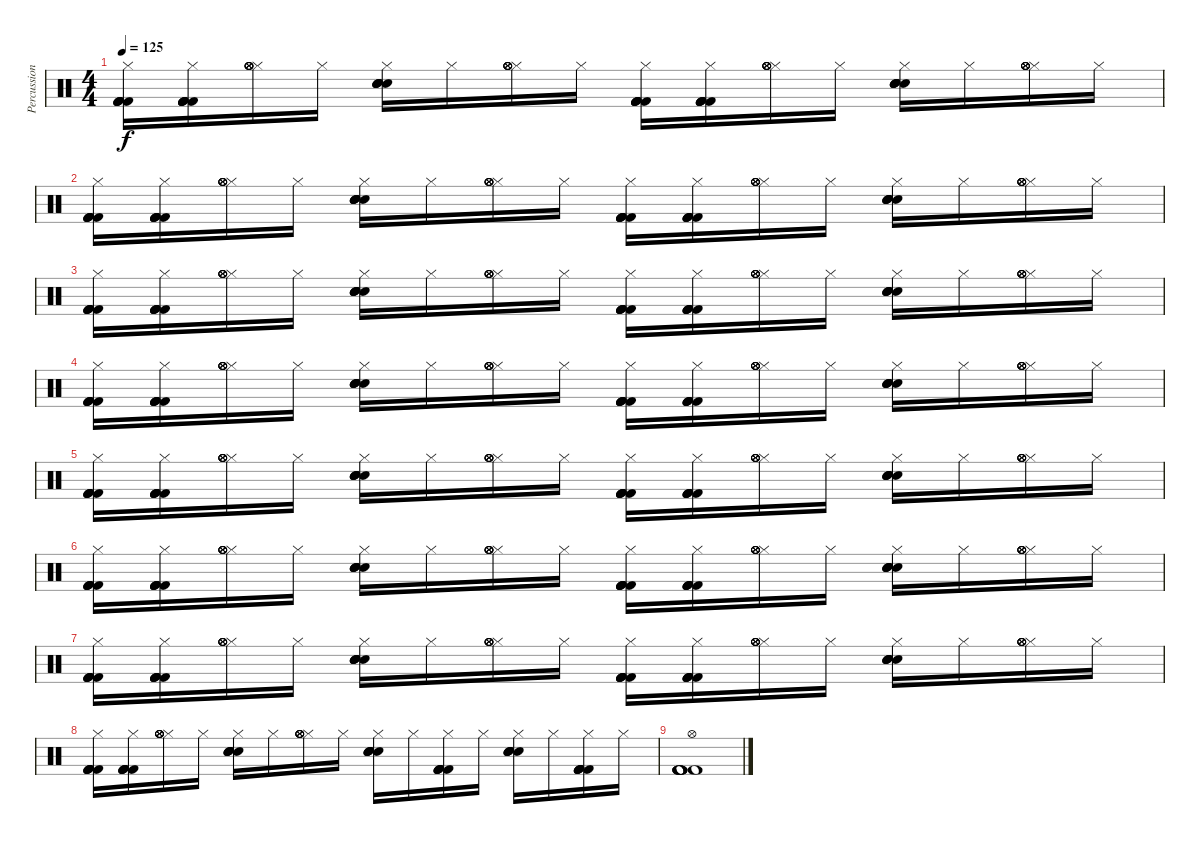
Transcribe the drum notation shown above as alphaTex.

\track ("Percussion" "Percussion") {instrument percussion}
\staff {score}
\articulation defaults
\ts (4 4)
\tempo 125
\clef neutral
\ks c
("Hi-Hat (closed)" "Kick (hit) 2" "Kick (hit) 2" "Kick (hit) 2" "Kick (hit) 2" "Kick (hit) 2").16{dy f} ("Hi-Hat (closed)" "Kick (hit) 2" "Kick (hit) 2" "Kick (hit) 2" "Kick (hit) 2" "Kick (hit) 2").16 ("Hi-Hat (closed)" "Hi-Hat (open)" "Hi-Hat (open)" "Hi-Hat (open)" "Hi-Hat (open)" "Hi-Hat (open)").16 "Hi-Hat (closed)".16 ("Hi-Hat (closed)" "Electric Snare (hit)" "Electric Snare (hit)" "Electric Snare (hit)" "Electric Snare (hit)" "Electric Snare (hit)").16 "Hi-Hat (closed)".16 ("Hi-Hat (closed)" "Hi-Hat (open)" "Hi-Hat (open)" "Hi-Hat (open)" "Hi-Hat (open)" "Hi-Hat (open)").16 "Hi-Hat (closed)".16 ("Hi-Hat (closed)" "Kick (hit) 2" "Kick (hit) 2" "Kick (hit) 2" "Kick (hit) 2" "Kick (hit) 2").16 ("Hi-Hat (closed)" "Kick (hit) 2" "Kick (hit) 2" "Kick (hit) 2" "Kick (hit) 2" "Kick (hit) 2").16 ("Hi-Hat (closed)" "Hi-Hat (open)" "Hi-Hat (open)" "Hi-Hat (open)" "Hi-Hat (open)" "Hi-Hat (open)").16 "Hi-Hat (closed)".16 ("Hi-Hat (closed)" "Electric Snare (hit)" "Electric Snare (hit)" "Electric Snare (hit)" "Electric Snare (hit)" "Electric Snare (hit)").16 "Hi-Hat (closed)".16 ("Hi-Hat (closed)" "Hi-Hat (open)" "Hi-Hat (open)" "Hi-Hat (open)" "Hi-Hat (open)" "Hi-Hat (open)").16 "Hi-Hat (closed)".16 |
("Hi-Hat (closed)" "Kick (hit) 2" "Kick (hit) 2" "Kick (hit) 2" "Kick (hit) 2" "Kick (hit) 2").16 ("Hi-Hat (closed)" "Kick (hit) 2" "Kick (hit) 2" "Kick (hit) 2" "Kick (hit) 2" "Kick (hit) 2").16 ("Hi-Hat (closed)" "Hi-Hat (open)" "Hi-Hat (open)" "Hi-Hat (open)" "Hi-Hat (open)" "Hi-Hat (open)").16 "Hi-Hat (closed)".16 ("Hi-Hat (closed)" "Electric Snare (hit)" "Electric Snare (hit)" "Electric Snare (hit)" "Electric Snare (hit)" "Electric Snare (hit)").16 "Hi-Hat (closed)".16 ("Hi-Hat (closed)" "Hi-Hat (open)" "Hi-Hat (open)" "Hi-Hat (open)" "Hi-Hat (open)" "Hi-Hat (open)").16 "Hi-Hat (closed)".16 ("Hi-Hat (closed)" "Kick (hit) 2" "Kick (hit) 2" "Kick (hit) 2" "Kick (hit) 2" "Kick (hit) 2").16 ("Hi-Hat (closed)" "Kick (hit) 2" "Kick (hit) 2" "Kick (hit) 2" "Kick (hit) 2" "Kick (hit) 2").16 ("Hi-Hat (closed)" "Hi-Hat (open)" "Hi-Hat (open)" "Hi-Hat (open)" "Hi-Hat (open)" "Hi-Hat (open)").16 "Hi-Hat (closed)".16 ("Hi-Hat (closed)" "Electric Snare (hit)" "Electric Snare (hit)" "Electric Snare (hit)" "Electric Snare (hit)" "Electric Snare (hit)").16 "Hi-Hat (closed)".16 ("Hi-Hat (closed)" "Hi-Hat (open)" "Hi-Hat (open)" "Hi-Hat (open)" "Hi-Hat (open)" "Hi-Hat (open)").16 "Hi-Hat (closed)".16 |
("Hi-Hat (closed)" "Kick (hit) 2" "Kick (hit) 2" "Kick (hit) 2" "Kick (hit) 2" "Kick (hit) 2").16 ("Hi-Hat (closed)" "Kick (hit) 2" "Kick (hit) 2" "Kick (hit) 2" "Kick (hit) 2" "Kick (hit) 2").16 ("Hi-Hat (closed)" "Hi-Hat (open)" "Hi-Hat (open)" "Hi-Hat (open)" "Hi-Hat (open)" "Hi-Hat (open)").16 "Hi-Hat (closed)".16 ("Hi-Hat (closed)" "Electric Snare (hit)" "Electric Snare (hit)" "Electric Snare (hit)" "Electric Snare (hit)" "Electric Snare (hit)").16 "Hi-Hat (closed)".16 ("Hi-Hat (closed)" "Hi-Hat (open)" "Hi-Hat (open)" "Hi-Hat (open)" "Hi-Hat (open)" "Hi-Hat (open)").16 "Hi-Hat (closed)".16 ("Hi-Hat (closed)" "Kick (hit) 2" "Kick (hit) 2" "Kick (hit) 2" "Kick (hit) 2" "Kick (hit) 2").16 ("Hi-Hat (closed)" "Kick (hit) 2" "Kick (hit) 2" "Kick (hit) 2" "Kick (hit) 2" "Kick (hit) 2").16 ("Hi-Hat (closed)" "Hi-Hat (open)" "Hi-Hat (open)" "Hi-Hat (open)" "Hi-Hat (open)" "Hi-Hat (open)").16 "Hi-Hat (closed)".16 ("Hi-Hat (closed)" "Electric Snare (hit)" "Electric Snare (hit)" "Electric Snare (hit)" "Electric Snare (hit)" "Electric Snare (hit)").16 "Hi-Hat (closed)".16 ("Hi-Hat (closed)" "Hi-Hat (open)" "Hi-Hat (open)" "Hi-Hat (open)" "Hi-Hat (open)" "Hi-Hat (open)").16 "Hi-Hat (closed)".16 |
("Hi-Hat (closed)" "Kick (hit) 2" "Kick (hit) 2" "Kick (hit) 2" "Kick (hit) 2" "Kick (hit) 2").16 ("Hi-Hat (closed)" "Kick (hit) 2" "Kick (hit) 2" "Kick (hit) 2" "Kick (hit) 2" "Kick (hit) 2").16 ("Hi-Hat (closed)" "Hi-Hat (open)" "Hi-Hat (open)" "Hi-Hat (open)" "Hi-Hat (open)" "Hi-Hat (open)").16 "Hi-Hat (closed)".16 ("Hi-Hat (closed)" "Electric Snare (hit)" "Electric Snare (hit)" "Electric Snare (hit)" "Electric Snare (hit)" "Electric Snare (hit)").16 "Hi-Hat (closed)".16 ("Hi-Hat (closed)" "Hi-Hat (open)" "Hi-Hat (open)" "Hi-Hat (open)" "Hi-Hat (open)" "Hi-Hat (open)").16 "Hi-Hat (closed)".16 ("Hi-Hat (closed)" "Kick (hit) 2" "Kick (hit) 2" "Kick (hit) 2" "Kick (hit) 2" "Kick (hit) 2").16 ("Hi-Hat (closed)" "Kick (hit) 2" "Kick (hit) 2" "Kick (hit) 2" "Kick (hit) 2" "Kick (hit) 2").16 ("Hi-Hat (closed)" "Hi-Hat (open)" "Hi-Hat (open)" "Hi-Hat (open)" "Hi-Hat (open)" "Hi-Hat (open)").16 "Hi-Hat (closed)".16 ("Hi-Hat (closed)" "Electric Snare (hit)" "Electric Snare (hit)" "Electric Snare (hit)" "Electric Snare (hit)" "Electric Snare (hit)").16 "Hi-Hat (closed)".16 ("Hi-Hat (closed)" "Hi-Hat (open)" "Hi-Hat (open)" "Hi-Hat (open)" "Hi-Hat (open)" "Hi-Hat (open)").16 "Hi-Hat (closed)".16 |
("Hi-Hat (closed)" "Kick (hit) 2" "Kick (hit) 2" "Kick (hit) 2" "Kick (hit) 2" "Kick (hit) 2").16 ("Hi-Hat (closed)" "Kick (hit) 2" "Kick (hit) 2" "Kick (hit) 2" "Kick (hit) 2" "Kick (hit) 2").16 ("Hi-Hat (closed)" "Hi-Hat (open)" "Hi-Hat (open)" "Hi-Hat (open)" "Hi-Hat (open)" "Hi-Hat (open)").16 "Hi-Hat (closed)".16 ("Hi-Hat (closed)" "Electric Snare (hit)" "Electric Snare (hit)" "Electric Snare (hit)" "Electric Snare (hit)" "Electric Snare (hit)").16 "Hi-Hat (closed)".16 ("Hi-Hat (closed)" "Hi-Hat (open)" "Hi-Hat (open)" "Hi-Hat (open)" "Hi-Hat (open)" "Hi-Hat (open)").16 "Hi-Hat (closed)".16 ("Hi-Hat (closed)" "Kick (hit) 2" "Kick (hit) 2" "Kick (hit) 2" "Kick (hit) 2" "Kick (hit) 2").16 ("Hi-Hat (closed)" "Kick (hit) 2" "Kick (hit) 2" "Kick (hit) 2" "Kick (hit) 2" "Kick (hit) 2").16 ("Hi-Hat (closed)" "Hi-Hat (open)" "Hi-Hat (open)" "Hi-Hat (open)" "Hi-Hat (open)" "Hi-Hat (open)").16 "Hi-Hat (closed)".16 ("Hi-Hat (closed)" "Electric Snare (hit)" "Electric Snare (hit)" "Electric Snare (hit)" "Electric Snare (hit)" "Electric Snare (hit)").16 "Hi-Hat (closed)".16 ("Hi-Hat (closed)" "Hi-Hat (open)" "Hi-Hat (open)" "Hi-Hat (open)" "Hi-Hat (open)" "Hi-Hat (open)").16 "Hi-Hat (closed)".16 |
("Hi-Hat (closed)" "Kick (hit) 2" "Kick (hit) 2" "Kick (hit) 2" "Kick (hit) 2" "Kick (hit) 2").16 ("Hi-Hat (closed)" "Kick (hit) 2" "Kick (hit) 2" "Kick (hit) 2" "Kick (hit) 2" "Kick (hit) 2").16 ("Hi-Hat (closed)" "Hi-Hat (open)" "Hi-Hat (open)" "Hi-Hat (open)" "Hi-Hat (open)" "Hi-Hat (open)").16 "Hi-Hat (closed)".16 ("Hi-Hat (closed)" "Electric Snare (hit)" "Electric Snare (hit)" "Electric Snare (hit)" "Electric Snare (hit)" "Electric Snare (hit)").16 "Hi-Hat (closed)".16 ("Hi-Hat (closed)" "Hi-Hat (open)" "Hi-Hat (open)" "Hi-Hat (open)" "Hi-Hat (open)" "Hi-Hat (open)").16 "Hi-Hat (closed)".16 ("Hi-Hat (closed)" "Kick (hit) 2" "Kick (hit) 2" "Kick (hit) 2" "Kick (hit) 2" "Kick (hit) 2").16 ("Hi-Hat (closed)" "Kick (hit) 2" "Kick (hit) 2" "Kick (hit) 2" "Kick (hit) 2" "Kick (hit) 2").16 ("Hi-Hat (closed)" "Hi-Hat (open)" "Hi-Hat (open)" "Hi-Hat (open)" "Hi-Hat (open)" "Hi-Hat (open)").16 "Hi-Hat (closed)".16 ("Hi-Hat (closed)" "Electric Snare (hit)" "Electric Snare (hit)" "Electric Snare (hit)" "Electric Snare (hit)" "Electric Snare (hit)").16 "Hi-Hat (closed)".16 ("Hi-Hat (closed)" "Hi-Hat (open)" "Hi-Hat (open)" "Hi-Hat (open)" "Hi-Hat (open)" "Hi-Hat (open)").16 "Hi-Hat (closed)".16 |
("Hi-Hat (closed)" "Kick (hit) 2" "Kick (hit) 2" "Kick (hit) 2" "Kick (hit) 2" "Kick (hit) 2").16 ("Hi-Hat (closed)" "Kick (hit) 2" "Kick (hit) 2" "Kick (hit) 2" "Kick (hit) 2" "Kick (hit) 2").16 ("Hi-Hat (closed)" "Hi-Hat (open)" "Hi-Hat (open)" "Hi-Hat (open)" "Hi-Hat (open)" "Hi-Hat (open)").16 "Hi-Hat (closed)".16 ("Hi-Hat (closed)" "Electric Snare (hit)" "Electric Snare (hit)" "Electric Snare (hit)" "Electric Snare (hit)" "Electric Snare (hit)").16 "Hi-Hat (closed)".16 ("Hi-Hat (closed)" "Hi-Hat (open)" "Hi-Hat (open)" "Hi-Hat (open)" "Hi-Hat (open)" "Hi-Hat (open)").16 "Hi-Hat (closed)".16 ("Hi-Hat (closed)" "Kick (hit) 2" "Kick (hit) 2" "Kick (hit) 2" "Kick (hit) 2" "Kick (hit) 2").16 ("Hi-Hat (closed)" "Kick (hit) 2" "Kick (hit) 2" "Kick (hit) 2" "Kick (hit) 2" "Kick (hit) 2").16 ("Hi-Hat (closed)" "Hi-Hat (open)" "Hi-Hat (open)" "Hi-Hat (open)" "Hi-Hat (open)" "Hi-Hat (open)").16 "Hi-Hat (closed)".16 ("Hi-Hat (closed)" "Electric Snare (hit)" "Electric Snare (hit)" "Electric Snare (hit)" "Electric Snare (hit)" "Electric Snare (hit)").16 "Hi-Hat (closed)".16 ("Hi-Hat (closed)" "Hi-Hat (open)" "Hi-Hat (open)" "Hi-Hat (open)" "Hi-Hat (open)" "Hi-Hat (open)").16 "Hi-Hat (closed)".16 |
("Hi-Hat (closed)" "Kick (hit) 2" "Kick (hit) 2" "Kick (hit) 2" "Kick (hit) 2" "Kick (hit) 2").16 ("Hi-Hat (closed)" "Kick (hit) 2" "Kick (hit) 2" "Kick (hit) 2" "Kick (hit) 2" "Kick (hit) 2").16 ("Hi-Hat (closed)" "Hi-Hat (open)" "Hi-Hat (open)" "Hi-Hat (open)" "Hi-Hat (open)" "Hi-Hat (open)").16 "Hi-Hat (closed)".16 ("Hi-Hat (closed)" "Electric Snare (hit)" "Electric Snare (hit)" "Electric Snare (hit)" "Electric Snare (hit)" "Electric Snare (hit)").16 "Hi-Hat (closed)".16 ("Hi-Hat (closed)" "Hi-Hat (open)" "Hi-Hat (open)" "Hi-Hat (open)" "Hi-Hat (open)" "Hi-Hat (open)").16 "Hi-Hat (closed)".16 ("Hi-Hat (closed)" "Electric Snare (hit)" "Electric Snare (hit)" "Electric Snare (hit)" "Electric Snare (hit)" "Electric Snare (hit)").16 "Hi-Hat (closed)".16 ("Hi-Hat (closed)" "Kick (hit) 2" "Kick (hit) 2" "Kick (hit) 2" "Kick (hit) 2" "Kick (hit) 2").16 "Hi-Hat (closed)".16 ("Hi-Hat (closed)" "Electric Snare (hit)" "Electric Snare (hit)" "Electric Snare (hit)" "Electric Snare (hit)" "Electric Snare (hit)").16 "Hi-Hat (closed)".16 ("Hi-Hat (closed)" "Kick (hit) 2" "Kick (hit) 2" "Kick (hit) 2" "Kick (hit) 2" "Kick (hit) 2").16 "Hi-Hat (closed)".16 |
("Kick (hit) 2" "Kick (hit) 2" "Kick (hit) 2" "Kick (hit) 2" "Hi-Hat (open)" "Kick (hit) 2").1
